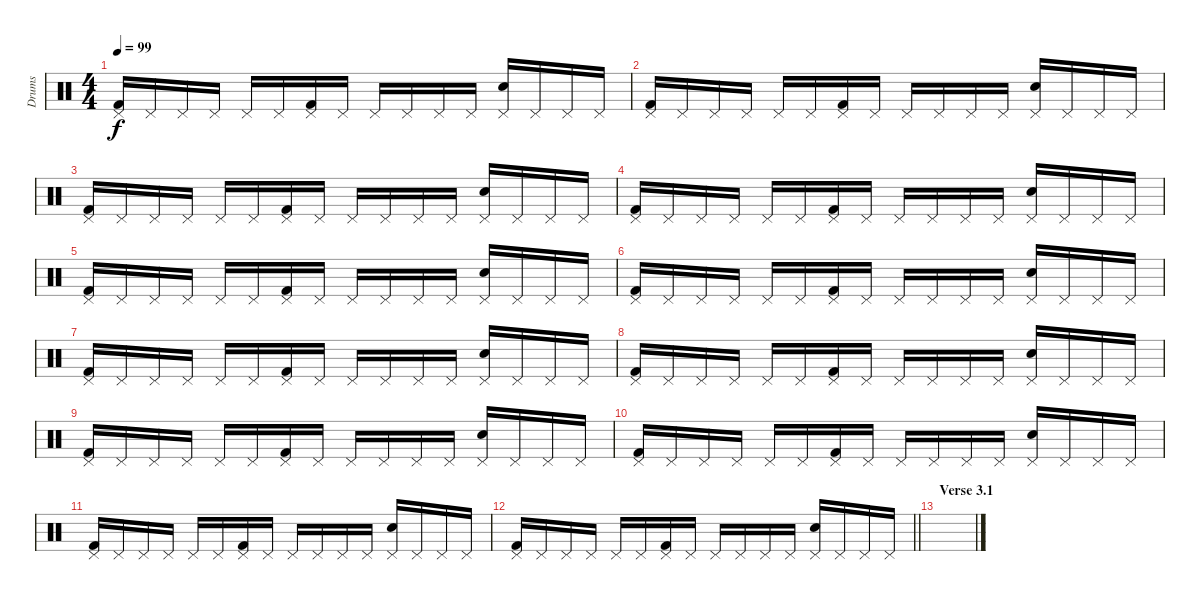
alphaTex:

\track ("Drums" "Drums") {instrument percussion}
\staff {score}
\articulation defaults
\ts (4 4)
\tempo 99
\clef neutral
\ks c
("Pedal Hi-Hat (hit)" "Kick (hit) 2").16{dy f} "Pedal Hi-Hat (hit)".16 "Pedal Hi-Hat (hit)".16 "Pedal Hi-Hat (hit)".16 "Pedal Hi-Hat (hit)".16 "Pedal Hi-Hat (hit)".16 ("Pedal Hi-Hat (hit)" "Kick (hit) 2").16 "Pedal Hi-Hat (hit)".16 "Pedal Hi-Hat (hit)".16 "Pedal Hi-Hat (hit)".16 "Pedal Hi-Hat (hit)".16 "Pedal Hi-Hat (hit)".16 ("Pedal Hi-Hat (hit)" "Snare (hit) 2").16 "Pedal Hi-Hat (hit)".16 "Pedal Hi-Hat (hit)".16 "Pedal Hi-Hat (hit)".16 |
("Pedal Hi-Hat (hit)" "Kick (hit) 2").16 "Pedal Hi-Hat (hit)".16 "Pedal Hi-Hat (hit)".16 "Pedal Hi-Hat (hit)".16 "Pedal Hi-Hat (hit)".16 "Pedal Hi-Hat (hit)".16 ("Pedal Hi-Hat (hit)" "Kick (hit) 2").16 "Pedal Hi-Hat (hit)".16 "Pedal Hi-Hat (hit)".16 "Pedal Hi-Hat (hit)".16 "Pedal Hi-Hat (hit)".16 "Pedal Hi-Hat (hit)".16 ("Pedal Hi-Hat (hit)" "Snare (hit) 2").16 "Pedal Hi-Hat (hit)".16 "Pedal Hi-Hat (hit)".16 "Pedal Hi-Hat (hit)".16 |
("Pedal Hi-Hat (hit)" "Kick (hit) 2").16 "Pedal Hi-Hat (hit)".16 "Pedal Hi-Hat (hit)".16 "Pedal Hi-Hat (hit)".16 "Pedal Hi-Hat (hit)".16 "Pedal Hi-Hat (hit)".16 ("Pedal Hi-Hat (hit)" "Kick (hit) 2").16 "Pedal Hi-Hat (hit)".16 "Pedal Hi-Hat (hit)".16 "Pedal Hi-Hat (hit)".16 "Pedal Hi-Hat (hit)".16 "Pedal Hi-Hat (hit)".16 ("Pedal Hi-Hat (hit)" "Snare (hit) 2").16 "Pedal Hi-Hat (hit)".16 "Pedal Hi-Hat (hit)".16 "Pedal Hi-Hat (hit)".16 |
("Pedal Hi-Hat (hit)" "Kick (hit) 2").16 "Pedal Hi-Hat (hit)".16 "Pedal Hi-Hat (hit)".16 "Pedal Hi-Hat (hit)".16 "Pedal Hi-Hat (hit)".16 "Pedal Hi-Hat (hit)".16 ("Pedal Hi-Hat (hit)" "Kick (hit) 2").16 "Pedal Hi-Hat (hit)".16 "Pedal Hi-Hat (hit)".16 "Pedal Hi-Hat (hit)".16 "Pedal Hi-Hat (hit)".16 "Pedal Hi-Hat (hit)".16 ("Pedal Hi-Hat (hit)" "Snare (hit) 2").16 "Pedal Hi-Hat (hit)".16 "Pedal Hi-Hat (hit)".16 "Pedal Hi-Hat (hit)".16 |
("Pedal Hi-Hat (hit)" "Kick (hit) 2").16 "Pedal Hi-Hat (hit)".16 "Pedal Hi-Hat (hit)".16 "Pedal Hi-Hat (hit)".16 "Pedal Hi-Hat (hit)".16 "Pedal Hi-Hat (hit)".16 ("Pedal Hi-Hat (hit)" "Kick (hit) 2").16 "Pedal Hi-Hat (hit)".16 "Pedal Hi-Hat (hit)".16 "Pedal Hi-Hat (hit)".16 "Pedal Hi-Hat (hit)".16 "Pedal Hi-Hat (hit)".16 ("Pedal Hi-Hat (hit)" "Snare (hit) 2").16 "Pedal Hi-Hat (hit)".16 "Pedal Hi-Hat (hit)".16 "Pedal Hi-Hat (hit)".16 |
("Pedal Hi-Hat (hit)" "Kick (hit) 2").16 "Pedal Hi-Hat (hit)".16 "Pedal Hi-Hat (hit)".16 "Pedal Hi-Hat (hit)".16 "Pedal Hi-Hat (hit)".16 "Pedal Hi-Hat (hit)".16 ("Pedal Hi-Hat (hit)" "Kick (hit) 2").16 "Pedal Hi-Hat (hit)".16 "Pedal Hi-Hat (hit)".16 "Pedal Hi-Hat (hit)".16 "Pedal Hi-Hat (hit)".16 "Pedal Hi-Hat (hit)".16 ("Pedal Hi-Hat (hit)" "Snare (hit) 2").16 "Pedal Hi-Hat (hit)".16 "Pedal Hi-Hat (hit)".16 "Pedal Hi-Hat (hit)".16 |
("Pedal Hi-Hat (hit)" "Kick (hit) 2").16 "Pedal Hi-Hat (hit)".16 "Pedal Hi-Hat (hit)".16 "Pedal Hi-Hat (hit)".16 "Pedal Hi-Hat (hit)".16 "Pedal Hi-Hat (hit)".16 ("Pedal Hi-Hat (hit)" "Kick (hit) 2").16 "Pedal Hi-Hat (hit)".16 "Pedal Hi-Hat (hit)".16 "Pedal Hi-Hat (hit)".16 "Pedal Hi-Hat (hit)".16 "Pedal Hi-Hat (hit)".16 ("Pedal Hi-Hat (hit)" "Snare (hit) 2").16 "Pedal Hi-Hat (hit)".16 "Pedal Hi-Hat (hit)".16 "Pedal Hi-Hat (hit)".16 |
("Pedal Hi-Hat (hit)" "Kick (hit) 2").16 "Pedal Hi-Hat (hit)".16 "Pedal Hi-Hat (hit)".16 "Pedal Hi-Hat (hit)".16 "Pedal Hi-Hat (hit)".16 "Pedal Hi-Hat (hit)".16 ("Pedal Hi-Hat (hit)" "Kick (hit) 2").16 "Pedal Hi-Hat (hit)".16 "Pedal Hi-Hat (hit)".16 "Pedal Hi-Hat (hit)".16 "Pedal Hi-Hat (hit)".16 "Pedal Hi-Hat (hit)".16 ("Pedal Hi-Hat (hit)" "Snare (hit) 2").16 "Pedal Hi-Hat (hit)".16 "Pedal Hi-Hat (hit)".16 "Pedal Hi-Hat (hit)".16 |
("Pedal Hi-Hat (hit)" "Kick (hit) 2").16 "Pedal Hi-Hat (hit)".16 "Pedal Hi-Hat (hit)".16 "Pedal Hi-Hat (hit)".16 "Pedal Hi-Hat (hit)".16 "Pedal Hi-Hat (hit)".16 ("Pedal Hi-Hat (hit)" "Kick (hit) 2").16 "Pedal Hi-Hat (hit)".16 "Pedal Hi-Hat (hit)".16 "Pedal Hi-Hat (hit)".16 "Pedal Hi-Hat (hit)".16 "Pedal Hi-Hat (hit)".16 ("Pedal Hi-Hat (hit)" "Snare (hit) 2").16 "Pedal Hi-Hat (hit)".16 "Pedal Hi-Hat (hit)".16 "Pedal Hi-Hat (hit)".16 |
("Pedal Hi-Hat (hit)" "Kick (hit) 2").16 "Pedal Hi-Hat (hit)".16 "Pedal Hi-Hat (hit)".16 "Pedal Hi-Hat (hit)".16 "Pedal Hi-Hat (hit)".16 "Pedal Hi-Hat (hit)".16 ("Pedal Hi-Hat (hit)" "Kick (hit) 2").16 "Pedal Hi-Hat (hit)".16 "Pedal Hi-Hat (hit)".16 "Pedal Hi-Hat (hit)".16 "Pedal Hi-Hat (hit)".16 "Pedal Hi-Hat (hit)".16 ("Pedal Hi-Hat (hit)" "Snare (hit) 2").16 "Pedal Hi-Hat (hit)".16 "Pedal Hi-Hat (hit)".16 "Pedal Hi-Hat (hit)".16 |
("Pedal Hi-Hat (hit)" "Kick (hit) 2").16 "Pedal Hi-Hat (hit)".16 "Pedal Hi-Hat (hit)".16 "Pedal Hi-Hat (hit)".16 "Pedal Hi-Hat (hit)".16 "Pedal Hi-Hat (hit)".16 ("Pedal Hi-Hat (hit)" "Kick (hit) 2").16 "Pedal Hi-Hat (hit)".16 "Pedal Hi-Hat (hit)".16 "Pedal Hi-Hat (hit)".16 "Pedal Hi-Hat (hit)".16 "Pedal Hi-Hat (hit)".16 ("Pedal Hi-Hat (hit)" "Snare (hit) 2").16 "Pedal Hi-Hat (hit)".16 "Pedal Hi-Hat (hit)".16 "Pedal Hi-Hat (hit)".16 |
\barLineRight lightlight
("Pedal Hi-Hat (hit)" "Kick (hit) 2").16 "Pedal Hi-Hat (hit)".16 "Pedal Hi-Hat (hit)".16 "Pedal Hi-Hat (hit)".16 "Pedal Hi-Hat (hit)".16 "Pedal Hi-Hat (hit)".16 ("Pedal Hi-Hat (hit)" "Kick (hit) 2").16 "Pedal Hi-Hat (hit)".16 "Pedal Hi-Hat (hit)".16 "Pedal Hi-Hat (hit)".16 "Pedal Hi-Hat (hit)".16 "Pedal Hi-Hat (hit)".16 ("Pedal Hi-Hat (hit)" "Snare (hit) 2").16 "Pedal Hi-Hat (hit)".16 "Pedal Hi-Hat (hit)".16 "Pedal Hi-Hat (hit)".16 |
\section ("" "Verse 3.1")
